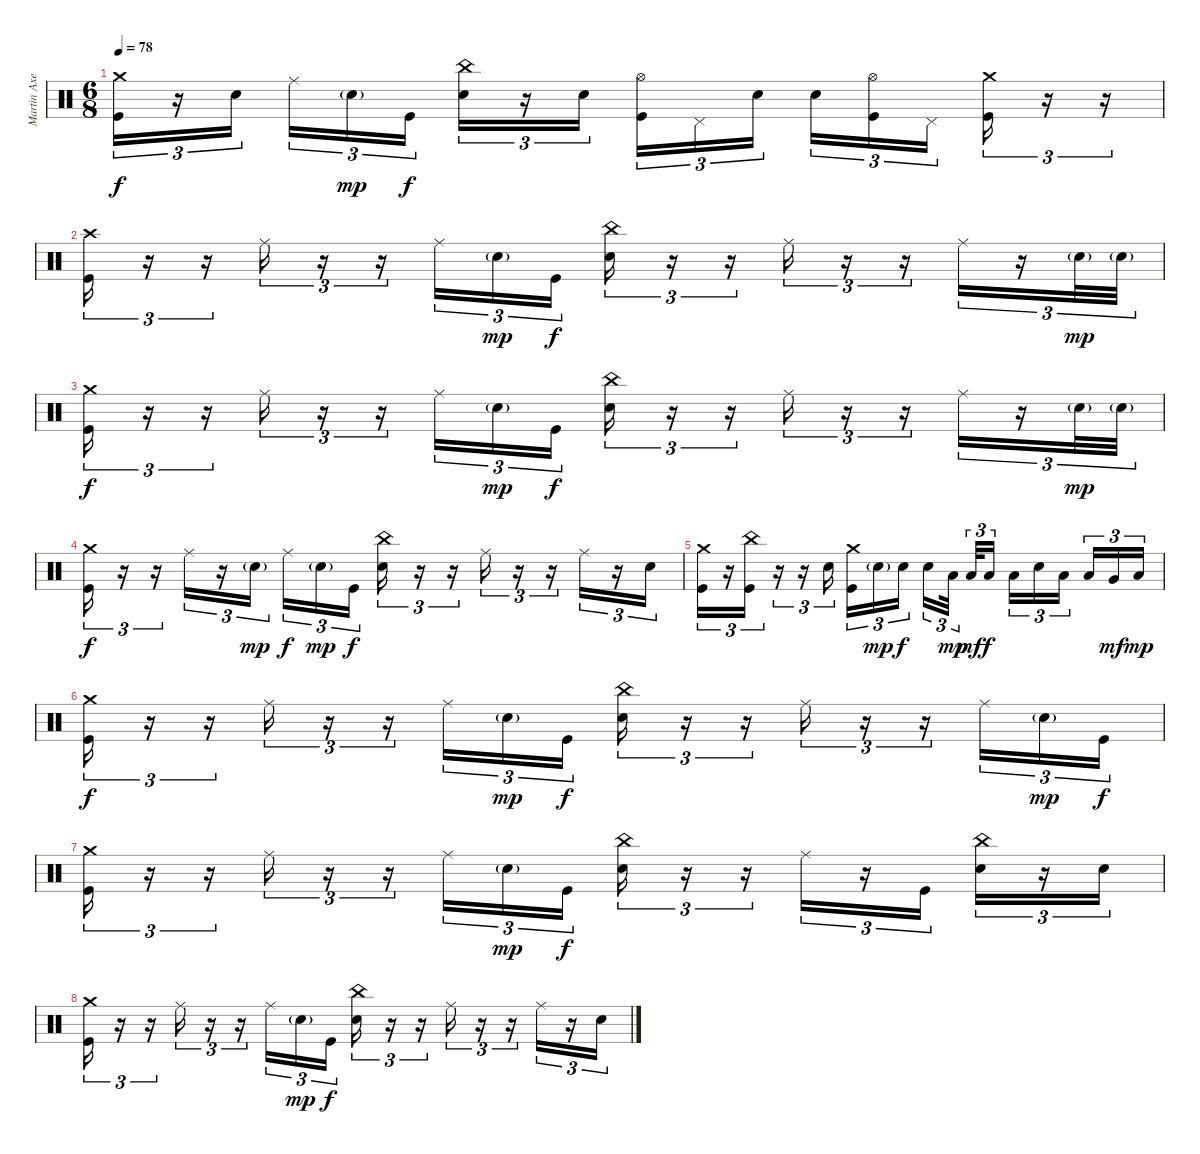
\track ("Martin Axenrot" "Martin Axe") {instrument percussion}
\staff {score}
\articulation defaults
\ts (6 8)
\tempo 78
\clef neutral
\ks c
("Crash medium (hit)" "Kick (hit)").16{tu (3 2) dy f} r.16{tu (3 2)} "Snare (hit) 2".16{tu (3 2) beam splitsecondary} "Ride (middle)".16{tu (3 2)} "Snare (hit) 2"{g}.16{tu (3 2) dy mp} "Kick (hit)".16{tu (3 2) dy f beam splitsecondary} ("China (hit)" "Snare (hit) 2").16{tu (3 2)} r.16{tu (3 2)} "Snare (hit) 2".16{tu (3 2)} ("Hi-Hat (open)" "Kick (hit)").16{tu (3 2)} "Pedal Hi-Hat (hit)".16{tu (3 2)} "Snare (hit) 2".16{tu (3 2) beam splitsecondary} "Snare (hit) 2".16{tu (3 2)} ("Hi-Hat (open)" "Kick (hit)").16{tu (3 2)} "Pedal Hi-Hat (hit)".16{tu (3 2) beam splitsecondary} ("Crash medium (hit)" "Kick (hit)").16{tu (3 2)} r.16{tu (3 2)} r.16{tu (3 2)} |
("Crash high (hit)" "Kick (hit)").16{tu (3 2)} r.16{tu (3 2)} r.16{tu (3 2)} "Ride (middle)".16{tu (3 2)} r.16{tu (3 2)} r.16{tu (3 2)} "Ride (middle)".16{tu (3 2)} "Snare (hit) 2"{g}.16{tu (3 2) dy mp} "Kick (hit)".16{tu (3 2) dy f} ("China (hit)" "Snare (hit) 2").16{tu (3 2)} r.16{tu (3 2)} r.16{tu (3 2)} "Ride (middle)".16{tu (3 2)} r.16{tu (3 2)} r.16{tu (3 2)} "Ride (middle)".16{tu (3 2)} r.16{tu (3 2)} "Snare (hit) 2"{g}.32{tu (3 2) dy mp} "Snare (hit) 2"{g}.32{tu (3 2)} |
("Crash medium (hit)" "Kick (hit)").16{tu (3 2) dy f} r.16{tu (3 2)} r.16{tu (3 2)} "Ride (middle)".16{tu (3 2)} r.16{tu (3 2)} r.16{tu (3 2)} "Ride (middle)".16{tu (3 2)} "Snare (hit) 2"{g}.16{tu (3 2) dy mp} "Kick (hit)".16{tu (3 2) dy f} ("China (hit)" "Snare (hit) 2").16{tu (3 2)} r.16{tu (3 2)} r.16{tu (3 2)} "Ride (middle)".16{tu (3 2)} r.16{tu (3 2)} r.16{tu (3 2)} "Ride (middle)".16{tu (3 2)} r.16{tu (3 2)} "Snare (hit) 2"{g}.32{tu (3 2) dy mp} "Snare (hit) 2"{g}.32{tu (3 2)} |
("Crash medium (hit)" "Kick (hit)").16{tu (3 2) dy f} r.16{tu (3 2)} r.16{tu (3 2)} "Ride (middle)".16{tu (3 2)} r.16{tu (3 2)} "Snare (hit) 2"{g}.16{tu (3 2) dy mp beam splitsecondary} "Ride (middle)".16{tu (3 2) dy f} "Snare (hit) 2"{g}.16{tu (3 2) dy mp} "Kick (hit)".16{tu (3 2) dy f} ("China (hit)" "Snare (hit) 2").16{tu (3 2)} r.16{tu (3 2)} r.16{tu (3 2)} "Ride (middle)".16{tu (3 2)} r.16{tu (3 2)} r.16{tu (3 2)} "Ride (middle)".16{tu (3 2)} r.16{tu (3 2)} "Snare (hit) 2".16{tu (3 2)} |
("Crash medium (hit)" "Kick (hit)").16{tu (3 2)} r.16{tu (3 2)} ("China (hit)" "Kick (hit)").16{tu (3 2)} r.16{tu (3 2)} r.16{tu (3 2)} "Snare (hit) 2".16{tu (3 2) beam splitsecondary} ("Crash medium (hit)" "Kick (hit)").16{tu (3 2)} "Snare (hit) 2"{g}.16{tu (3 2) dy mp} "Snare (hit) 2".16{tu (3 2) dy f} "Snare (hit) 2".16{tu (3 2)} "Low Tom (hit)".32{tu (3 2) dy mp beam splitsecondary} "Low Tom (hit)".32{tu (3 2) dy mf} "Low Tom (hit)".16{tu (3 2) dy f beam splitsecondary} "Low Tom (hit)".16{tu (3 2)} "Snare (hit) 2".16{tu (3 2)} "Low Tom (hit)".16{tu (3 2) beam splitsecondary} "Low Tom (hit)".16{tu (3 2)} "Very Low Tom (hit)".16{tu (3 2) dy mf} "Low Floor Tom (hit)".16{tu (3 2) dy mp} |
("Crash medium (hit)" "Kick (hit)").16{tu (3 2) dy f} r.16{tu (3 2)} r.16{tu (3 2)} "Ride (middle)".16{tu (3 2)} r.16{tu (3 2)} r.16{tu (3 2)} "Ride (middle)".16{tu (3 2)} "Snare (hit) 2"{g}.16{tu (3 2) dy mp} "Kick (hit)".16{tu (3 2) dy f} ("China (hit)" "Snare (hit) 2").16{tu (3 2)} r.16{tu (3 2)} r.16{tu (3 2)} "Ride (middle)".16{tu (3 2)} r.16{tu (3 2)} r.16{tu (3 2)} "Ride (middle)".16{tu (3 2)} "Snare (hit) 2"{g}.16{tu (3 2) dy mp} "Kick (hit)".16{tu (3 2) dy f} |
("Crash medium (hit)" "Kick (hit)").16{tu (3 2)} r.16{tu (3 2)} r.16{tu (3 2)} "Ride (middle)".16{tu (3 2)} r.16{tu (3 2)} r.16{tu (3 2)} "Ride (middle)".16{tu (3 2)} "Snare (hit) 2"{g}.16{tu (3 2) dy mp} "Kick (hit)".16{tu (3 2) dy f} ("China (hit)" "Snare (hit) 2").16{tu (3 2)} r.16{tu (3 2)} r.16{tu (3 2)} "Ride (middle)".16{tu (3 2)} r.16{tu (3 2)} "Kick (hit)".16{tu (3 2)} ("China (hit)" "Snare (hit) 2").16{tu (3 2)} r.16{tu (3 2)} "Snare (hit) 2".16{tu (3 2)} |
("Crash medium (hit)" "Kick (hit)").16{tu (3 2)} r.16{tu (3 2)} r.16{tu (3 2)} "Ride (middle)".16{tu (3 2)} r.16{tu (3 2)} r.16{tu (3 2)} "Ride (middle)".16{tu (3 2)} "Snare (hit) 2"{g}.16{tu (3 2) dy mp} "Kick (hit)".16{tu (3 2) dy f} ("China (hit)" "Snare (hit) 2").16{tu (3 2)} r.16{tu (3 2)} r.16{tu (3 2)} "Ride (middle)".16{tu (3 2)} r.16{tu (3 2)} r.16{tu (3 2)} "Ride (middle)".16{tu (3 2)} r.16{tu (3 2)} "Snare (hit) 2".16{tu (3 2)}
